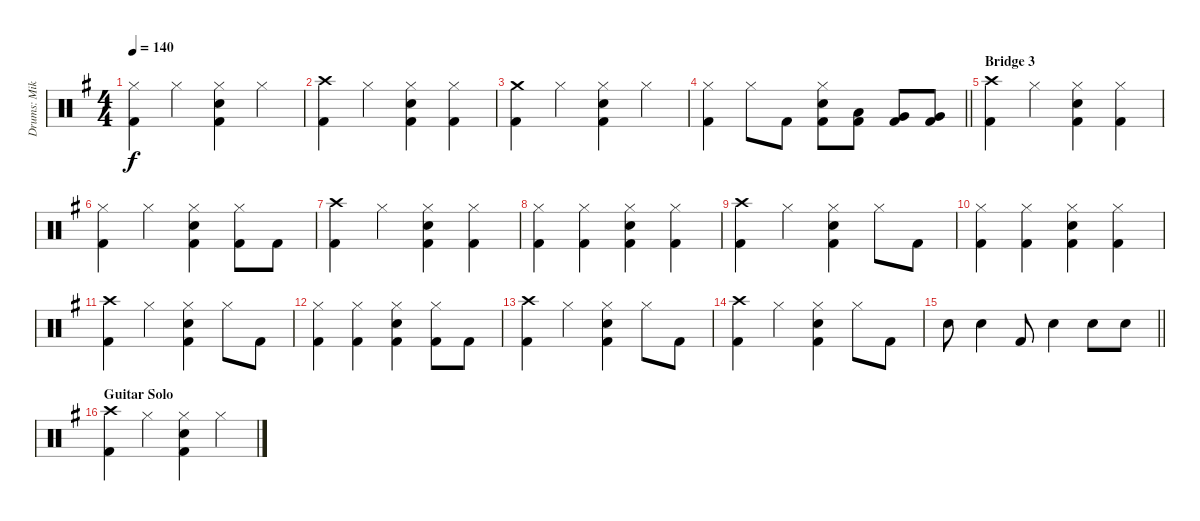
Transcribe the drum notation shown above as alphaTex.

\track ("Drums: Mike Terrana" "Drums: Mik") {instrument percussion}
\staff {score}
\articulation defaults
\ts (4 4)
\tempo 140
\clef neutral
\ks eminor
("Hi-Hat (closed)" "Kick (hit) 2").4{dy f} "Hi-Hat (closed)".4 ("Hi-Hat (closed)" "Electric Snare (hit)" "Kick (hit) 2").4 "Hi-Hat (closed)".4 |
("Crash high (hit)" "Kick (hit) 2").4 "Hi-Hat (closed)".4 ("Hi-Hat (closed)" "Electric Snare (hit)" "Kick (hit) 2").4 ("Hi-Hat (closed)" "Kick (hit) 2").4 |
("Crash medium (hit)" "Kick (hit) 2").4 "Hi-Hat (closed)".4 ("Hi-Hat (closed)" "Electric Snare (hit)" "Kick (hit) 2").4 "Hi-Hat (closed)".4 |
\barLineRight lightlight
("Hi-Hat (closed)" "Kick (hit) 2").4 "Hi-Hat (closed)".8 "Kick (hit) 2".8 ("Hi-Hat (closed)" "Electric Snare (hit)" "Kick (hit) 2").8 ("Low Tom (hit)" "Kick (hit) 2").8 ("Very Low Tom (hit)" "Kick (hit) 2").8 ("Very Low Tom (hit)" "Kick (hit) 2").8 |
\section ("" "Bridge 3")
("Crash high (hit)" "Kick (hit) 2").4 "Hi-Hat (closed)".4 ("Hi-Hat (closed)" "Electric Snare (hit)" "Kick (hit) 2").4 ("Hi-Hat (closed)" "Kick (hit) 2").4 |
("Hi-Hat (closed)" "Kick (hit) 2").4 "Hi-Hat (closed)".4 ("Hi-Hat (closed)" "Electric Snare (hit)" "Kick (hit) 2").4 ("Hi-Hat (closed)" "Kick (hit) 2").8 "Kick (hit) 2".8 |
("Crash high (hit)" "Kick (hit) 2").4 "Hi-Hat (closed)".4 ("Hi-Hat (closed)" "Electric Snare (hit)" "Kick (hit) 2").4 ("Hi-Hat (closed)" "Kick (hit) 2").4 |
("Hi-Hat (closed)" "Kick (hit) 2").4 ("Hi-Hat (closed)" "Kick (hit) 2").4 ("Hi-Hat (closed)" "Electric Snare (hit)" "Kick (hit) 2").4 ("Hi-Hat (closed)" "Kick (hit) 2").4 |
("Crash high (hit)" "Kick (hit) 2").4 "Hi-Hat (closed)".4 ("Hi-Hat (closed)" "Electric Snare (hit)" "Kick (hit) 2").4 "Hi-Hat (closed)".8 "Kick (hit) 2".8 |
("Hi-Hat (closed)" "Kick (hit) 2").4 ("Hi-Hat (closed)" "Kick (hit) 2").4 ("Hi-Hat (closed)" "Electric Snare (hit)" "Kick (hit) 2").4 ("Hi-Hat (closed)" "Kick (hit) 2").4 |
("Crash high (hit)" "Kick (hit) 2").4 "Hi-Hat (closed)".4 ("Hi-Hat (closed)" "Electric Snare (hit)" "Kick (hit) 2").4 "Hi-Hat (closed)".8 "Kick (hit) 2".8 |
("Hi-Hat (closed)" "Kick (hit) 2").4 ("Hi-Hat (closed)" "Kick (hit) 2").4 ("Hi-Hat (closed)" "Electric Snare (hit)" "Kick (hit) 2").4 ("Hi-Hat (closed)" "Kick (hit) 2").8 "Kick (hit) 2".8 |
("Crash high (hit)" "Kick (hit) 2").4 "Hi-Hat (closed)".4 ("Hi-Hat (closed)" "Electric Snare (hit)" "Kick (hit) 2").4 "Hi-Hat (closed)".8 "Kick (hit) 2".8 |
("Crash high (hit)" "Kick (hit) 2").4 "Hi-Hat (closed)".4 ("Hi-Hat (closed)" "Electric Snare (hit)" "Kick (hit) 2").4 "Hi-Hat (closed)".8 "Kick (hit) 2".8 |
\barLineRight lightlight "Electric Snare (hit)".8 "Electric Snare (hit)".4 "Kick (hit) 2".8 "Electric Snare (hit)".4 "Electric Snare (hit)".8 "Electric Snare (hit)".8
|
\section ("" "Guitar Solo")
("Crash high (hit)" "Kick (hit) 2").4 "Hi-Hat (closed)".4 ("Hi-Hat (closed)" "Electric Snare (hit)" "Kick (hit) 2").4 "Hi-Hat (closed)".4
